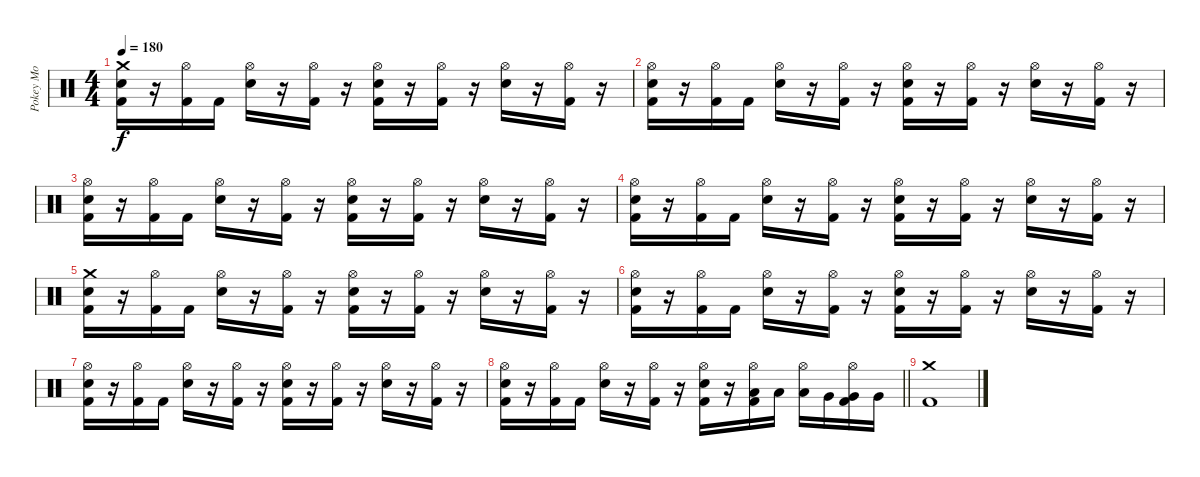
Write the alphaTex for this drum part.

\track ("Pokey Mo" "Pokey Mo") {instrument percussion}
\staff {score}
\articulation defaults
\ts (4 4)
\tempo 180
\clef neutral
\ks c
("Crash medium (hit)" "Electric Snare (hit)" "Kick (hit) 2").16{dy f} r.16 ("Hi-Hat (open)" "Kick (hit) 2").16 "Kick (hit) 2".16 ("Hi-Hat (open)" "Electric Snare (hit)").16 r.16 ("Hi-Hat (open)" "Kick (hit) 2").16 r.16 ("Hi-Hat (open)" "Electric Snare (hit)" "Kick (hit) 2").16 r.16 ("Hi-Hat (open)" "Kick (hit) 2").16 r.16 ("Hi-Hat (open)" "Electric Snare (hit)").16 r.16 ("Hi-Hat (open)" "Kick (hit) 2").16 r.16 |
("Hi-Hat (open)" "Electric Snare (hit)" "Kick (hit) 2").16 r.16 ("Hi-Hat (open)" "Kick (hit) 2").16 "Kick (hit) 2".16 ("Hi-Hat (open)" "Electric Snare (hit)").16 r.16 ("Hi-Hat (open)" "Kick (hit) 2").16 r.16 ("Hi-Hat (open)" "Electric Snare (hit)" "Kick (hit) 2").16 r.16 ("Hi-Hat (open)" "Kick (hit) 2").16 r.16 ("Hi-Hat (open)" "Electric Snare (hit)").16 r.16 ("Hi-Hat (open)" "Kick (hit) 2").16 r.16 |
("Hi-Hat (open)" "Electric Snare (hit)" "Kick (hit) 2").16 r.16 ("Hi-Hat (open)" "Kick (hit) 2").16 "Kick (hit) 2".16 ("Hi-Hat (open)" "Electric Snare (hit)").16 r.16 ("Hi-Hat (open)" "Kick (hit) 2").16 r.16 ("Hi-Hat (open)" "Electric Snare (hit)" "Kick (hit) 2").16 r.16 ("Hi-Hat (open)" "Kick (hit) 2").16 r.16 ("Hi-Hat (open)" "Electric Snare (hit)").16 r.16 ("Hi-Hat (open)" "Kick (hit) 2").16 r.16 |
("Hi-Hat (open)" "Electric Snare (hit)" "Kick (hit) 2").16 r.16 ("Hi-Hat (open)" "Kick (hit) 2").16 "Kick (hit) 2".16 ("Hi-Hat (open)" "Electric Snare (hit)").16 r.16 ("Hi-Hat (open)" "Kick (hit) 2").16 r.16 ("Hi-Hat (open)" "Electric Snare (hit)" "Kick (hit) 2").16 r.16 ("Hi-Hat (open)" "Kick (hit) 2").16 r.16 ("Hi-Hat (open)" "Electric Snare (hit)").16 r.16 ("Hi-Hat (open)" "Kick (hit) 2").16 r.16 |
("Crash medium (hit)" "Electric Snare (hit)" "Kick (hit) 2").16 r.16 ("Hi-Hat (open)" "Kick (hit) 2").16 "Kick (hit) 2".16 ("Hi-Hat (open)" "Electric Snare (hit)").16 r.16 ("Hi-Hat (open)" "Kick (hit) 2").16 r.16 ("Hi-Hat (open)" "Electric Snare (hit)" "Kick (hit) 2").16 r.16 ("Hi-Hat (open)" "Kick (hit) 2").16 r.16 ("Hi-Hat (open)" "Electric Snare (hit)").16 r.16 ("Hi-Hat (open)" "Kick (hit) 2").16 r.16 |
("Hi-Hat (open)" "Electric Snare (hit)" "Kick (hit) 2").16 r.16 ("Hi-Hat (open)" "Kick (hit) 2").16 "Kick (hit) 2".16 ("Hi-Hat (open)" "Electric Snare (hit)").16 r.16 ("Hi-Hat (open)" "Kick (hit) 2").16 r.16 ("Hi-Hat (open)" "Electric Snare (hit)" "Kick (hit) 2").16 r.16 ("Hi-Hat (open)" "Kick (hit) 2").16 r.16 ("Hi-Hat (open)" "Electric Snare (hit)").16 r.16 ("Hi-Hat (open)" "Kick (hit) 2").16 r.16 |
("Hi-Hat (open)" "Electric Snare (hit)" "Kick (hit) 2").16 r.16 ("Hi-Hat (open)" "Kick (hit) 2").16 "Kick (hit) 2".16 ("Hi-Hat (open)" "Electric Snare (hit)").16 r.16 ("Hi-Hat (open)" "Kick (hit) 2").16 r.16 ("Hi-Hat (open)" "Electric Snare (hit)" "Kick (hit) 2").16 r.16 ("Hi-Hat (open)" "Kick (hit) 2").16 r.16 ("Hi-Hat (open)" "Electric Snare (hit)").16 r.16 ("Hi-Hat (open)" "Kick (hit) 2").16 r.16 |
\barLineRight lightlight
("Hi-Hat (open)" "Electric Snare (hit)" "Kick (hit) 2").16 r.16 ("Hi-Hat (open)" "Kick (hit) 2").16 "Kick (hit) 2".16 ("Hi-Hat (open)" "Electric Snare (hit)").16 r.16 ("Hi-Hat (open)" "Kick (hit) 2").16 r.16 ("Hi-Hat (open)" "Electric Snare (hit)" "Kick (hit) 2").16 r.16 ("Hi-Hat (open)" "Low Tom (hit)" "Kick (hit) 2").16 "Low Tom (hit)".16 ("Hi-Hat (open)" "Low Tom (hit)").16 "Very Low Tom (hit)".16 ("Hi-Hat (open)" "Very Low Tom (hit)" "Kick (hit) 2").16 "Very Low Tom (hit)".16 |
("Crash medium (hit)" "Kick (hit) 2").1
